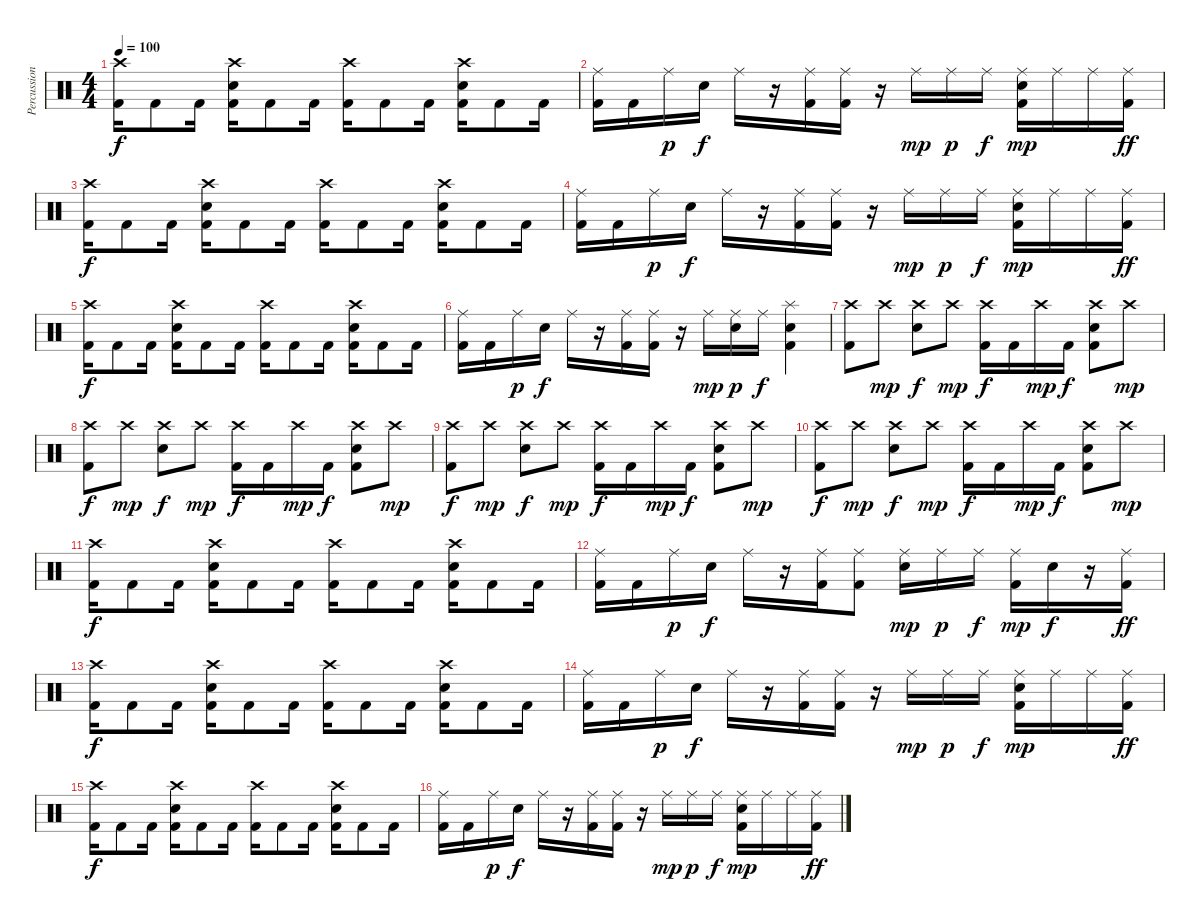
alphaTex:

\track ("Percussion" "Percussion") {instrument percussion}
\staff {score}
\articulation defaults
\ts (4 4)
\tempo 100
\clef neutral
\ks c
("Crash high (hit)" "Kick (hit) 2").16{dy f} "Kick (hit) 2".8 "Kick (hit) 2".16 ("Crash high (hit)" "Electric Snare (hit)" "Kick (hit) 2").16 "Kick (hit) 2".8 "Kick (hit) 2".16 ("Crash high (hit)" "Kick (hit) 2").16 "Kick (hit) 2".8 "Kick (hit) 2".16 ("Crash high (hit)" "Electric Snare (hit)" "Kick (hit) 2").16 "Kick (hit) 2".8 "Kick (hit) 2".16 |
("Ride (middle)" "Kick (hit) 2").16 "Kick (hit) 2".16 "Ride (middle)".16{dy p} "Electric Snare (hit)".16{dy f} "Ride (middle)".16 r.16 ("Ride (middle)" "Kick (hit) 2").16 ("Ride (middle)" "Kick (hit) 2").16 r.16 "Ride (middle)".16{dy mp} "Ride (middle)".16{dy p} "Ride (middle)".16{dy f} ("Ride (middle)" "Electric Snare (hit)" "Kick (hit) 2").16{dy mp} "Ride (middle)".16 "Ride (middle)".16 ("Ride (middle)" "Kick (hit) 2").16{dy ff} |
("Crash high (hit)" "Kick (hit) 2").16{dy f} "Kick (hit) 2".8 "Kick (hit) 2".16 ("Crash high (hit)" "Electric Snare (hit)" "Kick (hit) 2").16 "Kick (hit) 2".8 "Kick (hit) 2".16 ("Crash high (hit)" "Kick (hit) 2").16 "Kick (hit) 2".8 "Kick (hit) 2".16 ("Crash high (hit)" "Electric Snare (hit)" "Kick (hit) 2").16 "Kick (hit) 2".8 "Kick (hit) 2".16 |
("Ride (middle)" "Kick (hit) 2").16 "Kick (hit) 2".16 "Ride (middle)".16{dy p} "Electric Snare (hit)".16{dy f} "Ride (middle)".16 r.16 ("Ride (middle)" "Kick (hit) 2").16 ("Ride (middle)" "Kick (hit) 2").16 r.16 "Ride (middle)".16{dy mp} "Ride (middle)".16{dy p} "Ride (middle)".16{dy f} ("Ride (middle)" "Electric Snare (hit)" "Kick (hit) 2").16{dy mp} "Ride (middle)".16 "Ride (middle)".16 ("Ride (middle)" "Kick (hit) 2").16{dy ff} |
("Crash high (hit)" "Kick (hit) 2").16{dy f} "Kick (hit) 2".8 "Kick (hit) 2".16 ("Crash high (hit)" "Electric Snare (hit)" "Kick (hit) 2").16 "Kick (hit) 2".8 "Kick (hit) 2".16 ("Crash high (hit)" "Kick (hit) 2").16 "Kick (hit) 2".8 "Kick (hit) 2".16 ("Crash high (hit)" "Electric Snare (hit)" "Kick (hit) 2").16 "Kick (hit) 2".8 "Kick (hit) 2".16 |
("Ride (middle)" "Kick (hit) 2").16 "Kick (hit) 2".16 "Ride (middle)".16{dy p} "Electric Snare (hit)".16{dy f} "Ride (middle)".16 r.16 ("Ride (middle)" "Kick (hit) 2").16 ("Ride (middle)" "Kick (hit) 2").16 r.16 "Ride (middle)".16{dy mp} ("Ride (middle)" "Electric Snare (hit)").16{dy p} "Ride (middle)".16{dy f} ("Splash (hit)" "Electric Snare (hit)" "Kick (hit) 2").4 |
("Crash high (hit)" "Kick (hit) 2").8 "Crash high (hit)".8{dy mp} ("Crash high (hit)" "Electric Snare (hit)").8{dy f} "Crash high (hit)".8{dy mp} ("Crash high (hit)" "Kick (hit) 2").16{dy f} "Kick (hit) 2".16 "Crash high (hit)".16{dy mp} "Kick (hit) 2".16{dy f} ("Crash high (hit)" "Electric Snare (hit)" "Kick (hit) 2").8 "Crash high (hit)".8{dy mp} |
("Crash high (hit)" "Kick (hit) 2").8{dy f} "Crash high (hit)".8{dy mp} ("Crash high (hit)" "Electric Snare (hit)").8{dy f} "Crash high (hit)".8{dy mp} ("Crash high (hit)" "Kick (hit) 2").16{dy f} "Kick (hit) 2".16 "Crash high (hit)".16{dy mp} "Kick (hit) 2".16{dy f} ("Crash high (hit)" "Electric Snare (hit)" "Kick (hit) 2").8 "Crash high (hit)".8{dy mp} |
("Crash high (hit)" "Kick (hit) 2").8{dy f} "Crash high (hit)".8{dy mp} ("Crash high (hit)" "Electric Snare (hit)").8{dy f} "Crash high (hit)".8{dy mp} ("Crash high (hit)" "Kick (hit) 2").16{dy f} "Kick (hit) 2".16 "Crash high (hit)".16{dy mp} "Kick (hit) 2".16{dy f} ("Crash high (hit)" "Electric Snare (hit)" "Kick (hit) 2").8 "Crash high (hit)".8{dy mp} |
("Crash high (hit)" "Kick (hit) 2").8{dy f} "Crash high (hit)".8{dy mp} ("Crash high (hit)" "Electric Snare (hit)").8{dy f} "Crash high (hit)".8{dy mp} ("Crash high (hit)" "Kick (hit) 2").16{dy f} "Kick (hit) 2".16 "Crash high (hit)".16{dy mp} "Kick (hit) 2".16{dy f} ("Crash high (hit)" "Electric Snare (hit)" "Kick (hit) 2").8 "Crash high (hit)".8{dy mp} |
("Crash high (hit)" "Kick (hit) 2").16{dy f} "Kick (hit) 2".8 "Kick (hit) 2".16 ("Crash high (hit)" "Electric Snare (hit)" "Kick (hit) 2").16 "Kick (hit) 2".8 "Kick (hit) 2".16 ("Crash high (hit)" "Kick (hit) 2").16 "Kick (hit) 2".8 "Kick (hit) 2".16 ("Crash high (hit)" "Electric Snare (hit)" "Kick (hit) 2").16 "Kick (hit) 2".8 "Kick (hit) 2".16 |
("Ride (middle)" "Kick (hit) 2").16 "Kick (hit) 2".16 "Ride (middle)".16{dy p} "Electric Snare (hit)".16{dy f} "Ride (middle)".16 r.16 ("Ride (middle)" "Kick (hit) 2").16 ("Ride (middle)" "Kick (hit) 2").8 ("Ride (middle)" "Electric Snare (hit)").16{dy mp} "Ride (middle)".16{dy p} "Ride (middle)".16{dy f} ("Ride (middle)" "Kick (hit) 2").16{dy mp} "Electric Snare (hit)".16{dy f} r.16 ("Ride (middle)" "Kick (hit) 2").16{dy ff} |
("Crash high (hit)" "Kick (hit) 2").16{dy f} "Kick (hit) 2".8 "Kick (hit) 2".16 ("Crash high (hit)" "Electric Snare (hit)" "Kick (hit) 2").16 "Kick (hit) 2".8 "Kick (hit) 2".16 ("Crash high (hit)" "Kick (hit) 2").16 "Kick (hit) 2".8 "Kick (hit) 2".16 ("Crash high (hit)" "Electric Snare (hit)" "Kick (hit) 2").16 "Kick (hit) 2".8 "Kick (hit) 2".16 |
("Ride (middle)" "Kick (hit) 2").16 "Kick (hit) 2".16 "Ride (middle)".16{dy p} "Electric Snare (hit)".16{dy f} "Ride (middle)".16 r.16 ("Ride (middle)" "Kick (hit) 2").16 ("Ride (middle)" "Kick (hit) 2").16 r.16 "Ride (middle)".16{dy mp} "Ride (middle)".16{dy p} "Ride (middle)".16{dy f} ("Ride (middle)" "Electric Snare (hit)" "Kick (hit) 2").16{dy mp} "Ride (middle)".16 "Ride (middle)".16 ("Ride (middle)" "Kick (hit) 2").16{dy ff} |
("Crash high (hit)" "Kick (hit) 2").16{dy f} "Kick (hit) 2".8 "Kick (hit) 2".16 ("Crash high (hit)" "Electric Snare (hit)" "Kick (hit) 2").16 "Kick (hit) 2".8 "Kick (hit) 2".16 ("Crash high (hit)" "Kick (hit) 2").16 "Kick (hit) 2".8 "Kick (hit) 2".16 ("Crash high (hit)" "Electric Snare (hit)" "Kick (hit) 2").16 "Kick (hit) 2".8 "Kick (hit) 2".16 |
("Ride (middle)" "Kick (hit) 2").16 "Kick (hit) 2".16 "Ride (middle)".16{dy p} "Electric Snare (hit)".16{dy f} "Ride (middle)".16 r.16 ("Ride (middle)" "Kick (hit) 2").16 ("Ride (middle)" "Kick (hit) 2").16 r.16 "Ride (middle)".16{dy mp} "Ride (middle)".16{dy p} "Ride (middle)".16{dy f} ("Ride (middle)" "Electric Snare (hit)" "Kick (hit) 2").16{dy mp} "Ride (middle)".16 "Ride (middle)".16 ("Ride (middle)" "Kick (hit) 2").16{dy ff}
